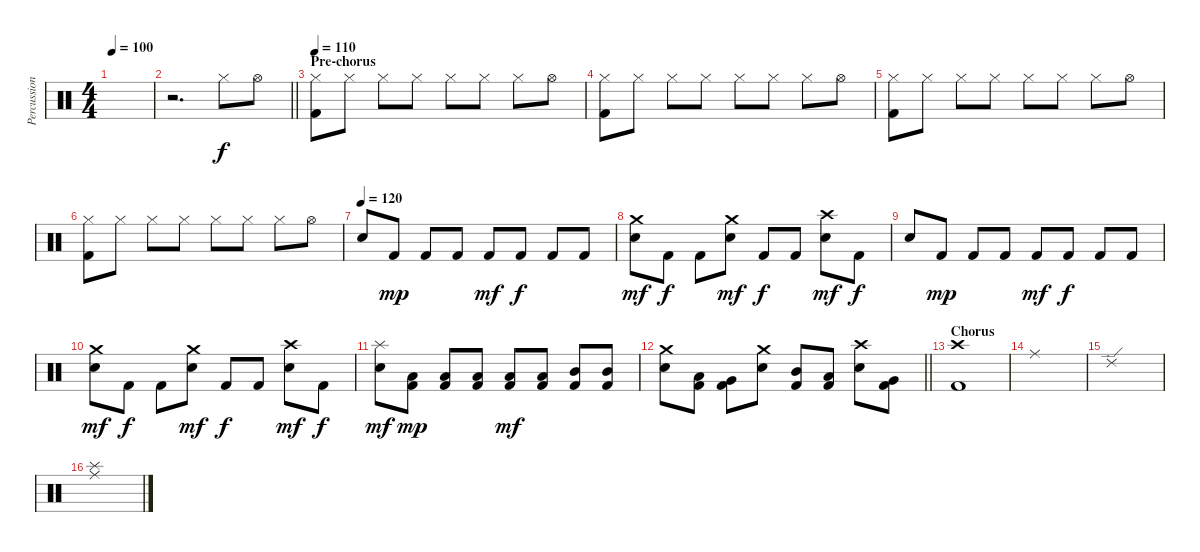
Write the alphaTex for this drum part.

\track ("Percussion" "Percussion") {instrument percussion}
\staff {score}
\articulation defaults
\ts (4 4)
\tempo 100
\clef neutral
\ks c
|
\barLineRight lightlight
r.2{d} "Hi-Hat (closed)".8 "Hi-Hat (open)".8 |
\section ("" "Pre-chorus")
\tempo 110
("Hi-Hat (closed)" "Kick (hit) 2").8 "Hi-Hat (closed)".8 "Hi-Hat (closed)".8 "Hi-Hat (closed)".8 "Hi-Hat (closed)".8 "Hi-Hat (closed)".8 "Hi-Hat (closed)".8 "Hi-Hat (open)".8 |
("Hi-Hat (closed)" "Kick (hit) 2").8 "Hi-Hat (closed)".8 "Hi-Hat (closed)".8 "Hi-Hat (closed)".8 "Hi-Hat (closed)".8 "Hi-Hat (closed)".8 "Hi-Hat (closed)".8 "Hi-Hat (open)".8 |
("Hi-Hat (closed)" "Kick (hit) 2").8 "Hi-Hat (closed)".8 "Hi-Hat (closed)".8 "Hi-Hat (closed)".8 "Hi-Hat (closed)".8 "Hi-Hat (closed)".8 "Hi-Hat (closed)".8 "Hi-Hat (open)".8 |
("Hi-Hat (closed)" "Kick (hit) 2").8 "Hi-Hat (closed)".8 "Hi-Hat (closed)".8 "Hi-Hat (closed)".8 "Hi-Hat (closed)".8 "Hi-Hat (closed)".8 "Hi-Hat (closed)".8 "Hi-Hat (open)".8 |
\tempo (120)
"Electric Snare (hit)".8 "Kick (hit) 2".8{dy mp} "Kick (hit) 2".8 "Kick (hit) 2".8 "Kick (hit) 2".8{dy mf} "Kick (hit) 2".8{dy f} "Kick (hit) 2".8 "Kick (hit) 2".8 |
("Crash medium (hit)" "Electric Snare (hit)").8{dy mf} "Kick (hit) 2".8{dy f} "Kick (hit) 2".8 ("Crash medium (hit)" "Electric Snare (hit)").8{dy mf} "Kick (hit) 2".8{dy f} "Kick (hit) 2".8 ("Crash high (hit)" "Electric Snare (hit)").8{dy mf} "Kick (hit) 2".8{dy f} |
"Electric Snare (hit)".8 "Kick (hit) 2".8{dy mp} "Kick (hit) 2".8 "Kick (hit) 2".8 "Kick (hit) 2".8{dy mf} "Kick (hit) 2".8{dy f} "Kick (hit) 2".8 "Kick (hit) 2".8 |
("Crash medium (hit)" "Electric Snare (hit)").8{dy mf} "Kick (hit) 2".8{dy f} "Kick (hit) 2".8 ("Crash medium (hit)" "Electric Snare (hit)").8{dy mf} "Kick (hit) 2".8{dy f} "Kick (hit) 2".8 ("Crash high (hit)" "Electric Snare (hit)").8{dy mf} "Kick (hit) 2".8{dy f} |
("Splash (hit)" "Electric Snare (hit)").8{dy mf} ("Low Tom (hit)" "Kick (hit) 2").8{dy mp} ("Low Tom (hit)" "Kick (hit) 2").8 ("Low Tom (hit)" "Kick (hit) 2").8 ("Low Tom (hit)" "Kick (hit) 2").8{dy mf} ("Low Tom (hit)" "Kick (hit) 2").8 ("Mid Tom (hit)" "Kick (hit) 2").8 ("Mid Tom (hit)" "Kick (hit) 2").8 |
\barLineRight lightlight
("Crash medium (hit)" "Electric Snare (hit)").8 ("Low Tom (hit)" "Kick (hit) 2").8 ("Very Low Tom (hit)" "Kick (hit) 2").8 ("Crash medium (hit)" "Electric Snare (hit)").8 ("Mid Tom (hit)" "Kick (hit) 2").8 ("Low Tom (hit)" "Kick (hit) 2").8 ("Crash high (hit)" "Electric Snare (hit)").8 ("Very Low Tom (hit)" "Kick (hit) 2").8 |
\section ("" "Chorus")
("Crash high (hit)" "Kick (hit) 2").1 |
"Ride (middle)".1 |
"Ride (edge) 2".1 |
("Splash (hit)" "Ride (middle)").1
